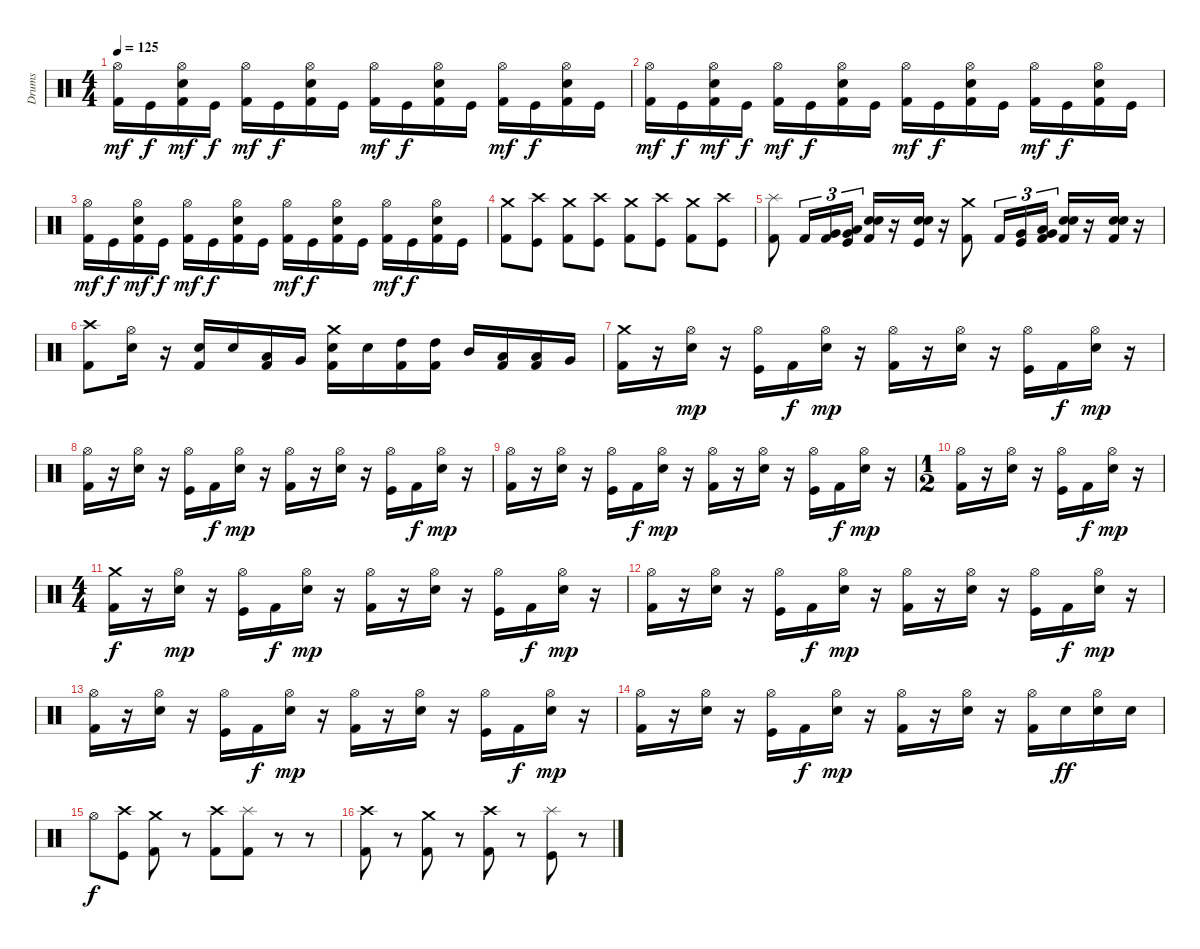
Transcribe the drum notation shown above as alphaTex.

\track ("Drums" "Drums") {instrument percussion}
\staff {score}
\articulation defaults
\ts (4 4)
\tempo 125
\clef neutral
\ks c
("Hi-Hat (open)" "Kick (hit) 2").16{dy mf} "Kick (hit)".16{dy f} ("Hi-Hat (open)" "Electric Snare (hit)" "Kick (hit) 2").16{dy mf} "Kick (hit)".16{dy f} ("Hi-Hat (open)" "Kick (hit) 2").16{dy mf} "Kick (hit)".16{dy f} ("Hi-Hat (open)" "Electric Snare (hit)" "Kick (hit) 2").16 "Kick (hit)".16 ("Hi-Hat (open)" "Kick (hit) 2").16{dy mf} "Kick (hit)".16{dy f} ("Hi-Hat (open)" "Electric Snare (hit)" "Kick (hit) 2").16 "Kick (hit)".16 ("Hi-Hat (open)" "Kick (hit) 2").16{dy mf} "Kick (hit)".16{dy f} ("Hi-Hat (open)" "Electric Snare (hit)" "Kick (hit) 2").16 "Kick (hit)".16 |
("Hi-Hat (open)" "Kick (hit) 2").16{dy mf} "Kick (hit)".16{dy f} ("Hi-Hat (open)" "Electric Snare (hit)" "Kick (hit) 2").16{dy mf} "Kick (hit)".16{dy f} ("Hi-Hat (open)" "Kick (hit) 2").16{dy mf} "Kick (hit)".16{dy f} ("Hi-Hat (open)" "Electric Snare (hit)" "Kick (hit) 2").16 "Kick (hit)".16 ("Hi-Hat (open)" "Kick (hit) 2").16{dy mf} "Kick (hit)".16{dy f} ("Hi-Hat (open)" "Electric Snare (hit)" "Kick (hit) 2").16 "Kick (hit)".16 ("Hi-Hat (open)" "Kick (hit) 2").16{dy mf} "Kick (hit)".16{dy f} ("Hi-Hat (open)" "Electric Snare (hit)" "Kick (hit) 2").16 "Kick (hit)".16 |
("Hi-Hat (open)" "Kick (hit) 2").16{dy mf} "Kick (hit)".16{dy f} ("Hi-Hat (open)" "Electric Snare (hit)" "Kick (hit) 2").16{dy mf} "Kick (hit)".16{dy f} ("Hi-Hat (open)" "Kick (hit) 2").16{dy mf} "Kick (hit)".16{dy f} ("Hi-Hat (open)" "Electric Snare (hit)" "Kick (hit) 2").16 "Kick (hit)".16 ("Hi-Hat (open)" "Kick (hit) 2").16{dy mf} "Kick (hit)".16{dy f} ("Hi-Hat (open)" "Electric Snare (hit)" "Kick (hit) 2").16 "Kick (hit)".16 ("Hi-Hat (open)" "Kick (hit) 2").16{dy mf} "Kick (hit)".16{dy f} ("Hi-Hat (open)" "Electric Snare (hit)" "Kick (hit) 2").16 "Kick (hit)".16 |
("Crash medium (hit)" "Kick (hit) 2").8 ("Crash high (hit)" "Kick (hit)").8 ("Crash medium (hit)" "Kick (hit) 2").8 ("Crash high (hit)" "Kick (hit)").8 ("Crash medium (hit)" "Kick (hit) 2").8 ("Crash high (hit)" "Kick (hit)").8 ("Crash medium (hit)" "Kick (hit) 2").8 ("Crash high (hit)" "Kick (hit)").8 |
("Splash (hit)" "Kick (hit) 2").8 "Kick (hit) 2".16{tu (3 2)} ("Very Low Tom (hit)" "Kick (hit) 2").16{tu (3 2)} ("Low Tom (hit)" "Very Low Tom (hit)" "Kick (hit)").16{tu (3 2)} ("Electric Snare (hit)" "Snare (hit) 2" "Kick (hit) 2").16 r.16 ("Electric Snare (hit)" "Snare (hit) 2" "Kick (hit)").16 r.16 ("Crash medium (hit)" "Kick (hit) 2").8 "Kick (hit) 2".16{tu (3 2)} ("Very Low Tom (hit)" "Kick (hit)").16{tu (3 2)} ("Low Tom (hit)" "Very Low Tom (hit)" "Kick (hit) 2").16{tu (3 2)} ("Electric Snare (hit)" "Snare (hit) 2" "Kick (hit) 2").16 r.16 ("Electric Snare (hit)" "Snare (hit) 2" "Kick (hit) 2").16 r.16 |
("Crash high (hit)" "Kick (hit) 2").8 ("Hi-Hat (open)" "Electric Snare (hit)").16 r.16 ("Electric Snare (hit)" "Kick (hit) 2").16 "Electric Snare (hit)".16 ("Low Tom (hit)" "Kick (hit) 2").16 "Very Low Tom (hit)".16 ("Crash medium (hit)" "Electric Snare (hit)" "Kick (hit) 2").16 "Electric Snare (hit)".16 ("High Tom (hit)" "Kick (hit) 2").16 ("High Tom (hit)" "Kick (hit) 2").16 "Mid Tom (hit)".16 ("Low Tom (hit)" "Kick (hit) 2").16 ("Low Tom (hit)" "Kick (hit) 2").16 "Very Low Tom (hit)".16 |
("Crash medium (hit)" "Kick (hit) 2").16 r.16 ("Hi-Hat (open)" "Snare (hit) 2").16{dy mp} r.16 ("Hi-Hat (open)" "Kick (hit)").16 "Kick (hit) 2".16{dy f} ("Hi-Hat (open)" "Snare (hit) 2").16{dy mp} r.16 ("Hi-Hat (open)" "Kick (hit) 2").16 r.16 ("Hi-Hat (open)" "Snare (hit) 2").16 r.16 ("Hi-Hat (open)" "Kick (hit)").16 "Kick (hit) 2".16{dy f} ("Hi-Hat (open)" "Snare (hit) 2").16{dy mp} r.16 |
("Hi-Hat (open)" "Kick (hit) 2").16 r.16 ("Hi-Hat (open)" "Snare (hit) 2").16 r.16 ("Hi-Hat (open)" "Kick (hit)").16 "Kick (hit) 2".16{dy f} ("Hi-Hat (open)" "Snare (hit) 2").16{dy mp} r.16 ("Hi-Hat (open)" "Kick (hit) 2").16 r.16 ("Hi-Hat (open)" "Snare (hit) 2").16 r.16 ("Hi-Hat (open)" "Kick (hit)").16 "Kick (hit) 2".16{dy f} ("Hi-Hat (open)" "Snare (hit) 2").16{dy mp} r.16 |
("Hi-Hat (open)" "Kick (hit) 2").16 r.16 ("Hi-Hat (open)" "Snare (hit) 2").16 r.16 ("Hi-Hat (open)" "Kick (hit)").16 "Kick (hit) 2".16{dy f} ("Hi-Hat (open)" "Snare (hit) 2").16{dy mp} r.16 ("Hi-Hat (open)" "Kick (hit) 2").16 r.16 ("Hi-Hat (open)" "Snare (hit) 2").16 r.16 ("Hi-Hat (open)" "Kick (hit)").16 "Kick (hit) 2".16{dy f} ("Hi-Hat (open)" "Snare (hit) 2").16{dy mp} r.16 |
\ts (1 2)
("Hi-Hat (open)" "Kick (hit) 2").16 r.16 ("Hi-Hat (open)" "Snare (hit) 2").16 r.16 ("Hi-Hat (open)" "Kick (hit)").16 "Kick (hit) 2".16{dy f} ("Hi-Hat (open)" "Snare (hit) 2").16{dy mp} r.16 |
\ts (4 4)
("Crash medium (hit)" "Kick (hit) 2").16{dy f} r.16 ("Hi-Hat (open)" "Snare (hit) 2").16{dy mp} r.16 ("Hi-Hat (open)" "Kick (hit)").16 "Kick (hit) 2".16{dy f} ("Hi-Hat (open)" "Snare (hit) 2").16{dy mp} r.16 ("Hi-Hat (open)" "Kick (hit) 2").16 r.16 ("Hi-Hat (open)" "Snare (hit) 2").16 r.16 ("Hi-Hat (open)" "Kick (hit)").16 "Kick (hit) 2".16{dy f} ("Hi-Hat (open)" "Snare (hit) 2").16{dy mp} r.16 |
("Hi-Hat (open)" "Kick (hit) 2").16 r.16 ("Hi-Hat (open)" "Snare (hit) 2").16 r.16 ("Hi-Hat (open)" "Kick (hit)").16 "Kick (hit) 2".16{dy f} ("Hi-Hat (open)" "Snare (hit) 2").16{dy mp} r.16 ("Hi-Hat (open)" "Kick (hit) 2").16 r.16 ("Hi-Hat (open)" "Snare (hit) 2").16 r.16 ("Hi-Hat (open)" "Kick (hit)").16 "Kick (hit) 2".16{dy f} ("Hi-Hat (open)" "Snare (hit) 2").16{dy mp} r.16 |
("Hi-Hat (open)" "Kick (hit) 2").16 r.16 ("Hi-Hat (open)" "Snare (hit) 2").16 r.16 ("Hi-Hat (open)" "Kick (hit)").16 "Kick (hit) 2".16{dy f} ("Hi-Hat (open)" "Snare (hit) 2").16{dy mp} r.16 ("Hi-Hat (open)" "Kick (hit) 2").16 r.16 ("Hi-Hat (open)" "Snare (hit) 2").16 r.16 ("Hi-Hat (open)" "Kick (hit)").16 "Kick (hit) 2".16{dy f} ("Hi-Hat (open)" "Snare (hit) 2").16{dy mp} r.16 |
("Hi-Hat (open)" "Kick (hit) 2").16 r.16 ("Hi-Hat (open)" "Snare (hit) 2").16 r.16 ("Hi-Hat (open)" "Kick (hit)").16 "Kick (hit) 2".16{dy f} ("Hi-Hat (open)" "Snare (hit) 2").16{dy mp} r.16 ("Hi-Hat (open)" "Kick (hit) 2").16 r.16 ("Hi-Hat (open)" "Snare (hit) 2").16 r.16 ("Hi-Hat (open)" "Kick (hit) 2").16 "Electric Snare (hit)".16{dy ff} ("Hi-Hat (open)" "Electric Snare (hit)").16 "Electric Snare (hit)".16 |
"Hi-Hat (open)".8{dy f} ("Crash high (hit)" "Kick (hit)").8 ("Crash medium (hit)" "Kick (hit) 2").8 r.8 ("Crash high (hit)" "Kick (hit) 2").8 ("Splash (hit)" "Kick (hit) 2").8 r.8 r.8 |
("Crash high (hit)" "Kick (hit) 2").8 r.8 ("Crash medium (hit)" "Kick (hit) 2").8 r.8 ("Crash high (hit)" "Kick (hit) 2").8 r.8 ("Splash (hit)" "Kick (hit)").8 r.8
